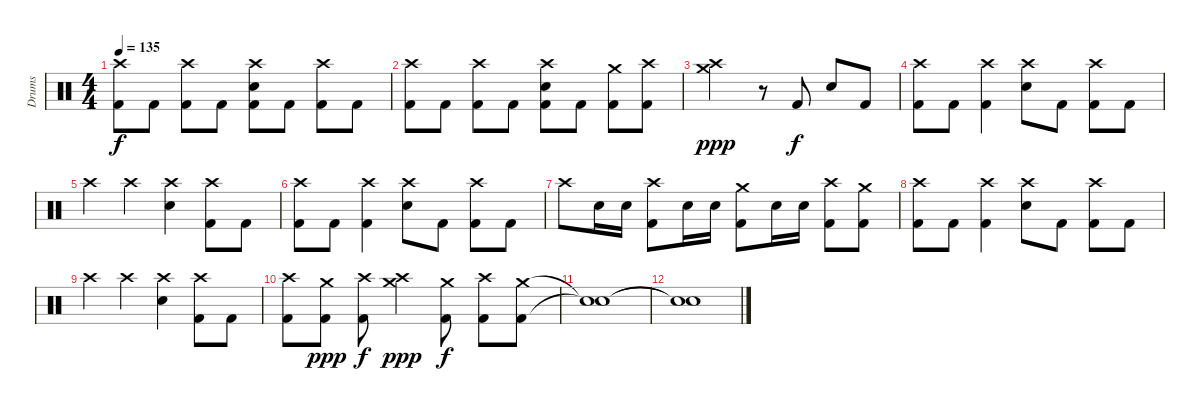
\track ("Drums" "Drums") {instrument percussion}
\staff {score}
\articulation defaults
\ts (4 4)
\tempo 135
\clef neutral
\ks c
("Crash high (hit)" "Kick (hit) 2").8{dy f} "Kick (hit) 2".8 ("Crash high (hit)" "Kick (hit) 2").8 "Kick (hit) 2".8 ("Crash high (hit)" "Electric Snare (hit)" "Kick (hit) 2").8 "Kick (hit) 2".8 ("Crash high (hit)" "Kick (hit) 2").8 "Kick (hit) 2".8 |
("Crash high (hit)" "Kick (hit) 2").8 "Kick (hit) 2".8 ("Crash high (hit)" "Kick (hit) 2").8 "Kick (hit) 2".8 ("Crash high (hit)" "Electric Snare (hit)" "Kick (hit) 2").8 "Kick (hit) 2".8 ("Crash medium (hit)" "Kick (hit) 2").8 ("Crash high (hit)" "Kick (hit) 2").8 |
("Crash high (hit)" "Crash medium (hit)").2{dy ppp} r.8 "Kick (hit) 2".8{dy f} "Electric Snare (hit)".8 "Kick (hit) 2".8 |
("Crash high (hit)" "Kick (hit) 2").8 "Kick (hit) 2".8 ("Crash high (hit)" "Kick (hit) 2").4 ("Crash high (hit)" "Electric Snare (hit)").8 "Kick (hit) 2".8 ("Crash high (hit)" "Kick (hit) 2").8 "Kick (hit) 2".8 |
"Crash high (hit)".4 "Crash high (hit)".4 ("Crash high (hit)" "Electric Snare (hit)").4 ("Crash high (hit)" "Kick (hit) 2").8 "Kick (hit) 2".8 |
("Crash high (hit)" "Kick (hit) 2").8 "Kick (hit) 2".8 ("Crash high (hit)" "Kick (hit) 2").4 ("Crash high (hit)" "Electric Snare (hit)").8 "Kick (hit) 2".8 ("Crash high (hit)" "Kick (hit) 2").8 "Kick (hit) 2".8 |
"Crash high (hit)".8 "Electric Snare (hit)".16 "Electric Snare (hit)".16 ("Crash high (hit)" "Kick (hit) 2").8 "Electric Snare (hit)".16 "Electric Snare (hit)".16 ("Crash medium (hit)" "Kick (hit) 2").8 "Electric Snare (hit)".16 "Electric Snare (hit)".16 ("Crash high (hit)" "Kick (hit) 2").8 ("Crash medium (hit)" "Kick (hit) 2").8 |
("Crash high (hit)" "Kick (hit) 2").8 "Kick (hit) 2".8 ("Crash high (hit)" "Kick (hit) 2").4 ("Crash high (hit)" "Electric Snare (hit)").8 "Kick (hit) 2".8 ("Crash high (hit)" "Kick (hit) 2").8 "Kick (hit) 2".8 |
"Crash high (hit)".4 "Crash high (hit)".4 ("Crash high (hit)" "Electric Snare (hit)").4 ("Crash high (hit)" "Kick (hit) 2").8 "Kick (hit) 2".8 |
("Crash high (hit)" "Kick (hit) 2").8 ("Crash medium (hit)" "Kick (hit) 2").8{dy ppp} ("Crash high (hit)" "Kick (hit) 2").8{dy f} ("Crash high (hit)" "Crash medium (hit)").4{dy ppp} ("Crash medium (hit)" "Kick (hit) 2").8{dy f} ("Crash high (hit)" "Kick (hit) 2").8 ("Crash medium (hit)" "Kick (hit) 2").8 |
("Snare (hit)"{t} "Snare (hit)"{t}).1 |
("Snare (hit)"{t} "Snare (hit)"{t}).1
